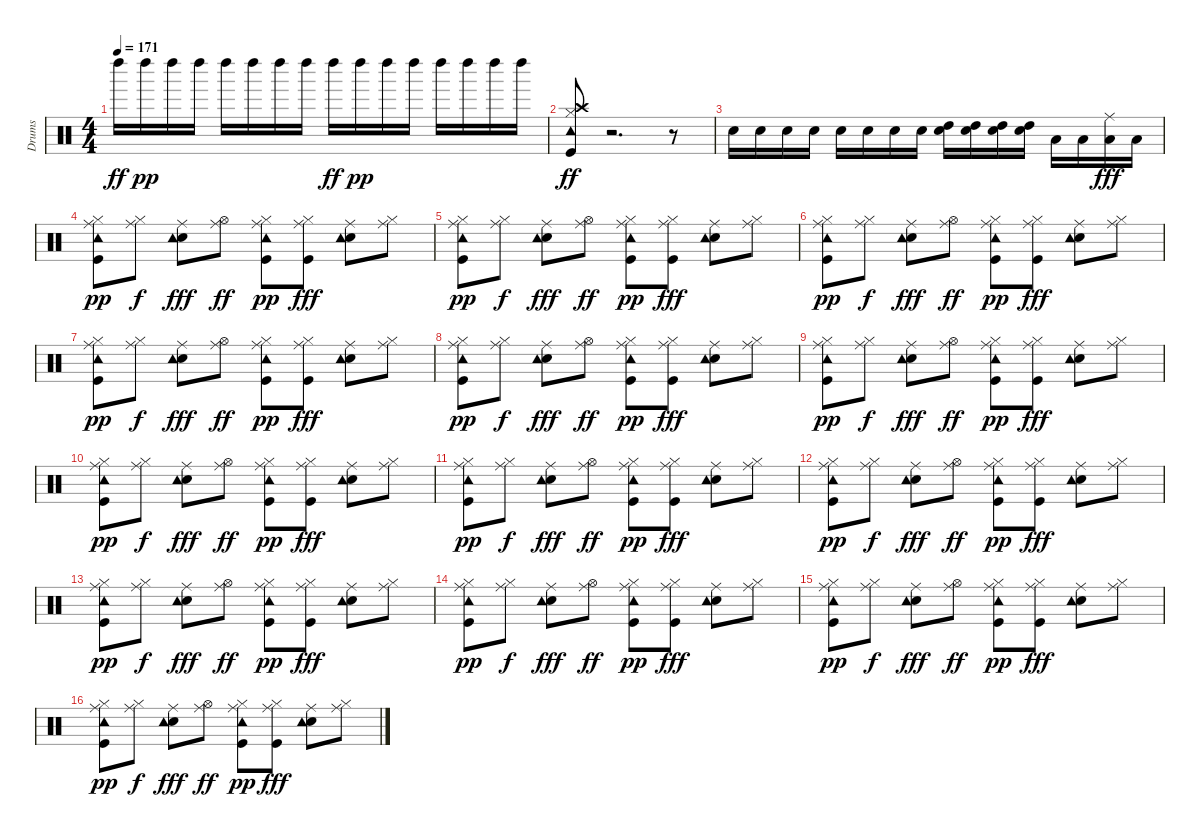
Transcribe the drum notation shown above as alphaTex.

\track ("Drums" "Drums") {instrument percussion}
\staff {score}
\articulation defaults
\ts (4 4)
\tempo 171
\clef neutral
\ks c "Left Maraca (hit)".16{dy ff} "Left Maraca (hit)".16{dy pp} "Left Maraca (hit)".16 "Left Maraca (hit)".16 "Left Maraca (hit)".16 "Left Maraca (hit)".16 "Left Maraca (hit)".16 "Left Maraca (hit)".16 "Left Maraca (hit)".16{dy ff} "Left Maraca (hit)".16{dy pp} "Left Maraca (hit)".16 "Left Maraca (hit)".16 "Left Maraca (hit)".16 "Left Maraca (hit)".16 "Left Maraca (hit)".16 "Left Maraca (hit)".16
|
("Kick (hit)" "Hi-Hat (closed)" "Crash high (hit)" "Tambourine (hit)").8{dy ff} r.2{d} r.8 |
"Electric Snare (hit)".16 "Electric Snare (hit)".16 "Electric Snare (hit)".16 "Electric Snare (hit)".16 "Electric Snare (hit)".16 "Electric Snare (hit)".16 "Electric Snare (hit)".16 "Electric Snare (hit)".16 ("Electric Snare (hit)" "High Tom (hit)").16 ("Electric Snare (hit)" "High Tom (hit)").16 ("Electric Snare (hit)" "High Tom (hit)").16 ("Electric Snare (hit)" "High Tom (hit)").16 "Low Tom (hit)".16 "Low Tom (hit)".16 ("Low Tom (hit)" "Ride (middle)").16{dy fff} "Low Tom (hit)".16 |
("Kick (hit)" "Hi-Hat (closed)" "Ride (middle)" "Tambourine (hit)").8{dy pp} ("Hi-Hat (closed)" "Ride (middle)").8{dy f} ("Snare (hit) 2" "Ride (middle)" "Tambourine (hit)").8{dy fff} ("Hi-Hat (open)" "Ride (middle)").8{dy ff} ("Kick (hit)" "Hi-Hat (closed)" "Ride (middle)" "Tambourine (hit)").8{dy pp} ("Kick (hit)" "Hi-Hat (closed)" "Ride (middle)").8{dy fff} ("Snare (hit) 2" "Ride (middle)" "Tambourine (hit)").8 ("Hi-Hat (closed)" "Ride (middle)").8 |
("Kick (hit)" "Hi-Hat (closed)" "Ride (middle)" "Tambourine (hit)").8{dy pp} ("Hi-Hat (closed)" "Ride (middle)").8{dy f} ("Snare (hit) 2" "Ride (middle)" "Tambourine (hit)").8{dy fff} ("Hi-Hat (open)" "Ride (middle)").8{dy ff} ("Kick (hit)" "Hi-Hat (closed)" "Ride (middle)" "Tambourine (hit)").8{dy pp} ("Kick (hit)" "Hi-Hat (closed)" "Ride (middle)").8{dy fff} ("Snare (hit) 2" "Ride (middle)" "Tambourine (hit)").8 ("Hi-Hat (closed)" "Ride (middle)").8 |
("Kick (hit)" "Hi-Hat (closed)" "Ride (middle)" "Tambourine (hit)").8{dy pp} ("Hi-Hat (closed)" "Ride (middle)").8{dy f} ("Snare (hit) 2" "Ride (middle)" "Tambourine (hit)").8{dy fff} ("Hi-Hat (open)" "Ride (middle)").8{dy ff} ("Kick (hit)" "Hi-Hat (closed)" "Ride (middle)" "Tambourine (hit)").8{dy pp} ("Kick (hit)" "Hi-Hat (closed)" "Ride (middle)").8{dy fff} ("Snare (hit) 2" "Ride (middle)" "Tambourine (hit)").8 ("Hi-Hat (closed)" "Ride (middle)").8 |
("Kick (hit)" "Hi-Hat (closed)" "Ride (middle)" "Tambourine (hit)").8{dy pp} ("Hi-Hat (closed)" "Ride (middle)").8{dy f} ("Snare (hit) 2" "Ride (middle)" "Tambourine (hit)").8{dy fff} ("Hi-Hat (open)" "Ride (middle)").8{dy ff} ("Kick (hit)" "Hi-Hat (closed)" "Ride (middle)" "Tambourine (hit)").8{dy pp} ("Kick (hit)" "Hi-Hat (closed)" "Ride (middle)").8{dy fff} ("Snare (hit) 2" "Ride (middle)" "Tambourine (hit)").8 ("Hi-Hat (closed)" "Ride (middle)").8 |
("Kick (hit)" "Hi-Hat (closed)" "Ride (middle)" "Tambourine (hit)").8{dy pp} ("Hi-Hat (closed)" "Ride (middle)").8{dy f} ("Snare (hit) 2" "Ride (middle)" "Tambourine (hit)").8{dy fff} ("Hi-Hat (open)" "Ride (middle)").8{dy ff} ("Kick (hit)" "Hi-Hat (closed)" "Ride (middle)" "Tambourine (hit)").8{dy pp} ("Kick (hit)" "Hi-Hat (closed)" "Ride (middle)").8{dy fff} ("Snare (hit) 2" "Ride (middle)" "Tambourine (hit)").8 ("Hi-Hat (closed)" "Ride (middle)").8 |
("Kick (hit)" "Hi-Hat (closed)" "Ride (middle)" "Tambourine (hit)").8{dy pp} ("Hi-Hat (closed)" "Ride (middle)").8{dy f} ("Snare (hit) 2" "Ride (middle)" "Tambourine (hit)").8{dy fff} ("Hi-Hat (open)" "Ride (middle)").8{dy ff} ("Kick (hit)" "Hi-Hat (closed)" "Ride (middle)" "Tambourine (hit)").8{dy pp} ("Kick (hit)" "Hi-Hat (closed)" "Ride (middle)").8{dy fff} ("Snare (hit) 2" "Ride (middle)" "Tambourine (hit)").8 ("Hi-Hat (closed)" "Ride (middle)").8 |
("Kick (hit)" "Hi-Hat (closed)" "Ride (middle)" "Tambourine (hit)").8{dy pp} ("Hi-Hat (closed)" "Ride (middle)").8{dy f} ("Snare (hit) 2" "Ride (middle)" "Tambourine (hit)").8{dy fff} ("Hi-Hat (open)" "Ride (middle)").8{dy ff} ("Kick (hit)" "Hi-Hat (closed)" "Ride (middle)" "Tambourine (hit)").8{dy pp} ("Kick (hit)" "Hi-Hat (closed)" "Ride (middle)").8{dy fff} ("Snare (hit) 2" "Ride (middle)" "Tambourine (hit)").8 ("Hi-Hat (closed)" "Ride (middle)").8 |
("Kick (hit)" "Hi-Hat (closed)" "Ride (middle)" "Tambourine (hit)").8{dy pp} ("Hi-Hat (closed)" "Ride (middle)").8{dy f} ("Snare (hit) 2" "Ride (middle)" "Tambourine (hit)").8{dy fff} ("Hi-Hat (open)" "Ride (middle)").8{dy ff} ("Kick (hit)" "Hi-Hat (closed)" "Ride (middle)" "Tambourine (hit)").8{dy pp} ("Kick (hit)" "Hi-Hat (closed)" "Ride (middle)").8{dy fff} ("Snare (hit) 2" "Ride (middle)" "Tambourine (hit)").8 ("Hi-Hat (closed)" "Ride (middle)").8 |
("Kick (hit)" "Hi-Hat (closed)" "Ride (middle)" "Tambourine (hit)").8{dy pp} ("Hi-Hat (closed)" "Ride (middle)").8{dy f} ("Snare (hit) 2" "Ride (middle)" "Tambourine (hit)").8{dy fff} ("Hi-Hat (open)" "Ride (middle)").8{dy ff} ("Kick (hit)" "Hi-Hat (closed)" "Ride (middle)" "Tambourine (hit)").8{dy pp} ("Kick (hit)" "Hi-Hat (closed)" "Ride (middle)").8{dy fff} ("Snare (hit) 2" "Ride (middle)" "Tambourine (hit)").8 ("Hi-Hat (closed)" "Ride (middle)").8 |
("Kick (hit)" "Hi-Hat (closed)" "Ride (middle)" "Tambourine (hit)").8{dy pp} ("Hi-Hat (closed)" "Ride (middle)").8{dy f} ("Snare (hit) 2" "Ride (middle)" "Tambourine (hit)").8{dy fff} ("Hi-Hat (open)" "Ride (middle)").8{dy ff} ("Kick (hit)" "Hi-Hat (closed)" "Ride (middle)" "Tambourine (hit)").8{dy pp} ("Kick (hit)" "Hi-Hat (closed)" "Ride (middle)").8{dy fff} ("Snare (hit) 2" "Ride (middle)" "Tambourine (hit)").8 ("Hi-Hat (closed)" "Ride (middle)").8 |
("Kick (hit)" "Hi-Hat (closed)" "Ride (middle)" "Tambourine (hit)").8{dy pp} ("Hi-Hat (closed)" "Ride (middle)").8{dy f} ("Snare (hit) 2" "Ride (middle)" "Tambourine (hit)").8{dy fff} ("Hi-Hat (open)" "Ride (middle)").8{dy ff} ("Kick (hit)" "Hi-Hat (closed)" "Ride (middle)" "Tambourine (hit)").8{dy pp} ("Kick (hit)" "Hi-Hat (closed)" "Ride (middle)").8{dy fff} ("Snare (hit) 2" "Ride (middle)" "Tambourine (hit)").8 ("Hi-Hat (closed)" "Ride (middle)").8 |
("Kick (hit)" "Hi-Hat (closed)" "Ride (middle)" "Tambourine (hit)").8{dy pp} ("Hi-Hat (closed)" "Ride (middle)").8{dy f} ("Snare (hit) 2" "Ride (middle)" "Tambourine (hit)").8{dy fff} ("Hi-Hat (open)" "Ride (middle)").8{dy ff} ("Kick (hit)" "Hi-Hat (closed)" "Ride (middle)" "Tambourine (hit)").8{dy pp} ("Kick (hit)" "Hi-Hat (closed)" "Ride (middle)").8{dy fff} ("Snare (hit) 2" "Ride (middle)" "Tambourine (hit)").8 ("Hi-Hat (closed)" "Ride (middle)").8 |
("Kick (hit)" "Hi-Hat (closed)" "Ride (middle)" "Tambourine (hit)").8{dy pp} ("Hi-Hat (closed)" "Ride (middle)").8{dy f} ("Snare (hit) 2" "Ride (middle)" "Tambourine (hit)").8{dy fff} ("Hi-Hat (open)" "Ride (middle)").8{dy ff} ("Kick (hit)" "Hi-Hat (closed)" "Ride (middle)" "Tambourine (hit)").8{dy pp} ("Kick (hit)" "Hi-Hat (closed)" "Ride (middle)").8{dy fff} ("Snare (hit) 2" "Ride (middle)" "Tambourine (hit)").8 ("Hi-Hat (closed)" "Ride (middle)").8
